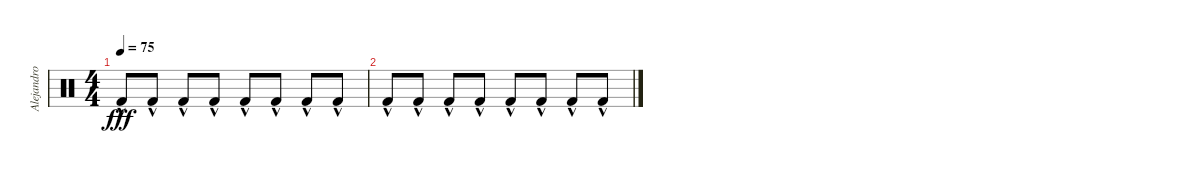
\track ("Alejandro Manzano" "Alejandro ") {instrument percussion}
\staff {score}
\articulation defaults
\ts (4 4)
\tempo 75
\clef neutral
\ks c "Kick (hit) 2"{hac}.8{dy fff} "Kick (hit) 2"{hac}.8 "Kick (hit) 2"{hac}.8 "Kick (hit) 2"{hac}.8 "Kick (hit) 2"{hac}.8 "Kick (hit) 2"{hac}.8 "Kick (hit) 2"{hac}.8 "Kick (hit) 2"{hac}.8
|
"Kick (hit) 2"{hac}.8 "Kick (hit) 2"{hac}.8 "Kick (hit) 2"{hac}.8 "Kick (hit) 2"{hac}.8 "Kick (hit) 2"{hac}.8 "Kick (hit) 2"{hac}.8 "Kick (hit) 2"{hac}.8 "Kick (hit) 2"{hac}.8
